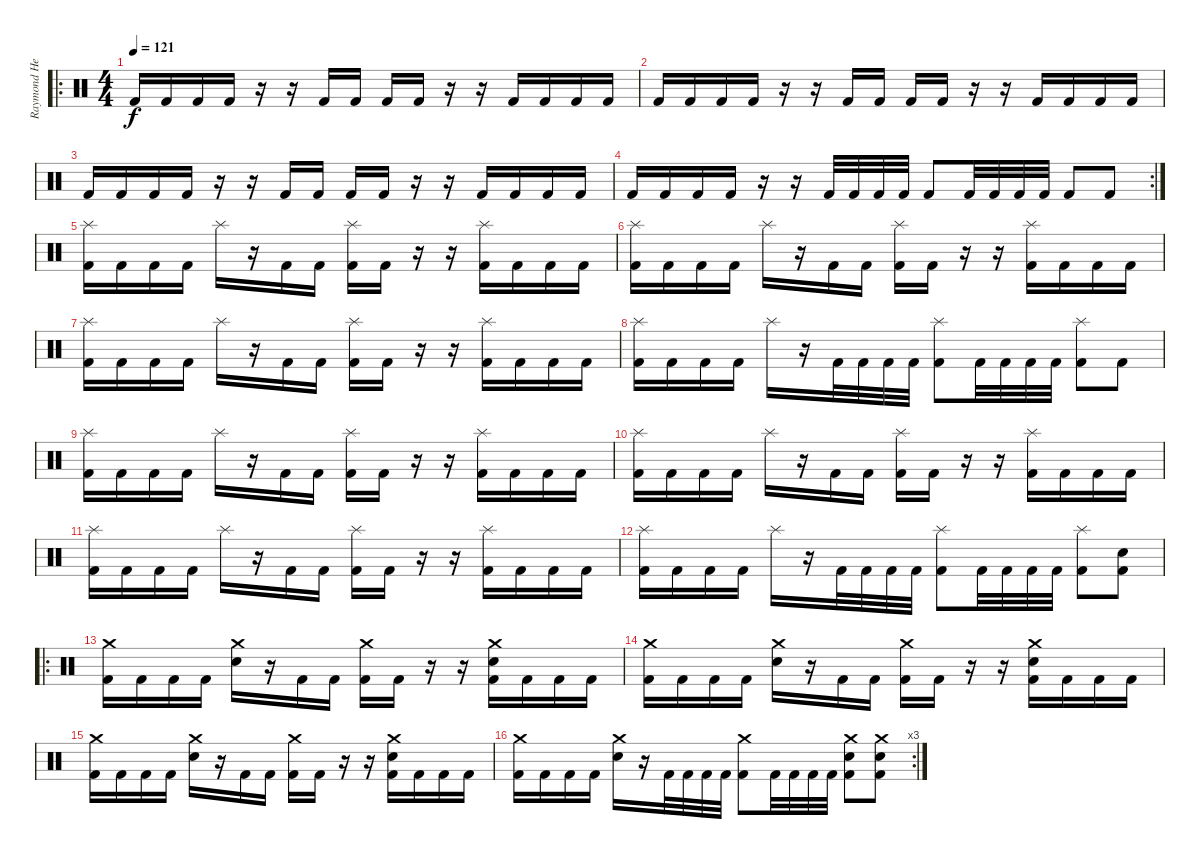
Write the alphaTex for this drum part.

\track ("Raymond Herrerra" "Raymond He") {instrument percussion}
\staff {score}
\articulation defaults
\ro
\ts (4 4)
\tempo 121
\clef neutral
\ks c "Kick (hit) 2".16{dy f} "Kick (hit) 2".16 "Kick (hit) 2".16 "Kick (hit) 2".16
r.16 r.16 "Kick (hit) 2".16 "Kick (hit) 2".16 "Kick (hit) 2".16 "Kick (hit) 2".16 r.16 r.16 "Kick (hit) 2".16 "Kick (hit) 2".16 "Kick (hit) 2".16 "Kick (hit) 2".16 |
"Kick (hit) 2".16 "Kick (hit) 2".16 "Kick (hit) 2".16 "Kick (hit) 2".16 r.16 r.16 "Kick (hit) 2".16 "Kick (hit) 2".16 "Kick (hit) 2".16 "Kick (hit) 2".16 r.16 r.16 "Kick (hit) 2".16 "Kick (hit) 2".16 "Kick (hit) 2".16 "Kick (hit) 2".16 |
"Kick (hit) 2".16 "Kick (hit) 2".16 "Kick (hit) 2".16 "Kick (hit) 2".16 r.16 r.16 "Kick (hit) 2".16 "Kick (hit) 2".16 "Kick (hit) 2".16 "Kick (hit) 2".16 r.16 r.16 "Kick (hit) 2".16 "Kick (hit) 2".16 "Kick (hit) 2".16 "Kick (hit) 2".16 |
\rc 2 "Kick (hit) 2".16 "Kick (hit) 2".16 "Kick (hit) 2".16 "Kick (hit) 2".16
r.16 r.16 "Kick (hit) 2".32 "Kick (hit) 2".32 "Kick (hit) 2".32 "Kick (hit) 2".32 "Kick (hit) 2".8 "Kick (hit) 2".32 "Kick (hit) 2".32 "Kick (hit) 2".32 "Kick (hit) 2".32 "Kick (hit) 2".8 "Kick (hit) 2".8 |
("Splash (hit)" "Kick (hit) 2").16 "Kick (hit) 2".16 "Kick (hit) 2".16 "Kick (hit) 2".16 "Splash (hit)".16 r.16 "Kick (hit) 2".16 "Kick (hit) 2".16 ("Splash (hit)" "Kick (hit) 2").16 "Kick (hit) 2".16 r.16 r.16 ("Splash (hit)" "Kick (hit) 2").16 "Kick (hit) 2".16 "Kick (hit) 2".16 "Kick (hit) 2".16 |
("Splash (hit)" "Kick (hit) 2").16 "Kick (hit) 2".16 "Kick (hit) 2".16 "Kick (hit) 2".16 "Splash (hit)".16 r.16 "Kick (hit) 2".16 "Kick (hit) 2".16 ("Splash (hit)" "Kick (hit) 2").16 "Kick (hit) 2".16 r.16 r.16 ("Splash (hit)" "Kick (hit) 2").16 "Kick (hit) 2".16 "Kick (hit) 2".16 "Kick (hit) 2".16 |
("Splash (hit)" "Kick (hit) 2").16 "Kick (hit) 2".16 "Kick (hit) 2".16 "Kick (hit) 2".16 "Splash (hit)".16 r.16 "Kick (hit) 2".16 "Kick (hit) 2".16 ("Splash (hit)" "Kick (hit) 2").16 "Kick (hit) 2".16 r.16 r.16 ("Splash (hit)" "Kick (hit) 2").16 "Kick (hit) 2".16 "Kick (hit) 2".16 "Kick (hit) 2".16 |
("Splash (hit)" "Kick (hit) 2").16 "Kick (hit) 2".16 "Kick (hit) 2".16 "Kick (hit) 2".16 "Splash (hit)".16 r.16 "Kick (hit) 2".32 "Kick (hit) 2".32 "Kick (hit) 2".32 "Kick (hit) 2".32 ("Splash (hit)" "Kick (hit) 2").8 "Kick (hit) 2".32 "Kick (hit) 2".32 "Kick (hit) 2".32 "Kick (hit) 2".32 ("Splash (hit)" "Kick (hit) 2").8 "Kick (hit) 2".8 |
("Splash (hit)" "Kick (hit) 2").16 "Kick (hit) 2".16 "Kick (hit) 2".16 "Kick (hit) 2".16 "Splash (hit)".16 r.16 "Kick (hit) 2".16 "Kick (hit) 2".16 ("Splash (hit)" "Kick (hit) 2").16 "Kick (hit) 2".16 r.16 r.16 ("Splash (hit)" "Kick (hit) 2").16 "Kick (hit) 2".16 "Kick (hit) 2".16 "Kick (hit) 2".16 |
("Splash (hit)" "Kick (hit) 2").16 "Kick (hit) 2".16 "Kick (hit) 2".16 "Kick (hit) 2".16 "Splash (hit)".16 r.16 "Kick (hit) 2".16 "Kick (hit) 2".16 ("Splash (hit)" "Kick (hit) 2").16 "Kick (hit) 2".16 r.16 r.16 ("Splash (hit)" "Kick (hit) 2").16 "Kick (hit) 2".16 "Kick (hit) 2".16 "Kick (hit) 2".16 |
("Splash (hit)" "Kick (hit) 2").16 "Kick (hit) 2".16 "Kick (hit) 2".16 "Kick (hit) 2".16 "Splash (hit)".16 r.16 "Kick (hit) 2".16 "Kick (hit) 2".16 ("Splash (hit)" "Kick (hit) 2").16 "Kick (hit) 2".16 r.16 r.16 ("Splash (hit)" "Kick (hit) 2").16 "Kick (hit) 2".16 "Kick (hit) 2".16 "Kick (hit) 2".16 |
("Splash (hit)" "Kick (hit) 2").16 "Kick (hit) 2".16 "Kick (hit) 2".16 "Kick (hit) 2".16 "Splash (hit)".16 r.16 "Kick (hit) 2".32 "Kick (hit) 2".32 "Kick (hit) 2".32 "Kick (hit) 2".32 ("Splash (hit)" "Kick (hit) 2").8 "Kick (hit) 2".32 "Kick (hit) 2".32 "Kick (hit) 2".32 "Kick (hit) 2".32 ("Splash (hit)" "Kick (hit) 2").8 ("Electric Snare (hit)" "Kick (hit) 2").8 |
\ro
("Crash medium (hit)" "Kick (hit) 2").16 "Kick (hit) 2".16 "Kick (hit) 2".16 "Kick (hit) 2".16 ("Crash medium (hit)" "Electric Snare (hit)").16 r.16 "Kick (hit) 2".16 "Kick (hit) 2".16 ("Crash medium (hit)" "Kick (hit) 2").16 "Kick (hit) 2".16 r.16 r.16 ("Crash medium (hit)" "Electric Snare (hit)" "Kick (hit) 2").16 "Kick (hit) 2".16 "Kick (hit) 2".16 "Kick (hit) 2".16 |
("Crash medium (hit)" "Kick (hit) 2").16 "Kick (hit) 2".16 "Kick (hit) 2".16 "Kick (hit) 2".16 ("Crash medium (hit)" "Electric Snare (hit)").16 r.16 "Kick (hit) 2".16 "Kick (hit) 2".16 ("Crash medium (hit)" "Kick (hit) 2").16 "Kick (hit) 2".16 r.16 r.16 ("Crash medium (hit)" "Electric Snare (hit)" "Kick (hit) 2").16 "Kick (hit) 2".16 "Kick (hit) 2".16 "Kick (hit) 2".16 |
("Crash medium (hit)" "Kick (hit) 2").16 "Kick (hit) 2".16 "Kick (hit) 2".16 "Kick (hit) 2".16 ("Crash medium (hit)" "Electric Snare (hit)").16 r.16 "Kick (hit) 2".16 "Kick (hit) 2".16 ("Crash medium (hit)" "Kick (hit) 2").16 "Kick (hit) 2".16 r.16 r.16 ("Crash medium (hit)" "Electric Snare (hit)" "Kick (hit) 2").16 "Kick (hit) 2".16 "Kick (hit) 2".16 "Kick (hit) 2".16 |
\rc 3
("Crash medium (hit)" "Kick (hit) 2").16 "Kick (hit) 2".16 "Kick (hit) 2".16 "Kick (hit) 2".16 ("Crash medium (hit)" "Electric Snare (hit)").16 r.16 "Kick (hit) 2".32 "Kick (hit) 2".32 "Kick (hit) 2".32 "Kick (hit) 2".32 ("Crash medium (hit)" "Kick (hit) 2").8 "Kick (hit) 2".32 "Kick (hit) 2".32 "Kick (hit) 2".32 "Kick (hit) 2".32 ("Crash medium (hit)" "Electric Snare (hit)" "Kick (hit) 2").8 ("Crash medium (hit)" "Electric Snare (hit)" "Kick (hit) 2").8
